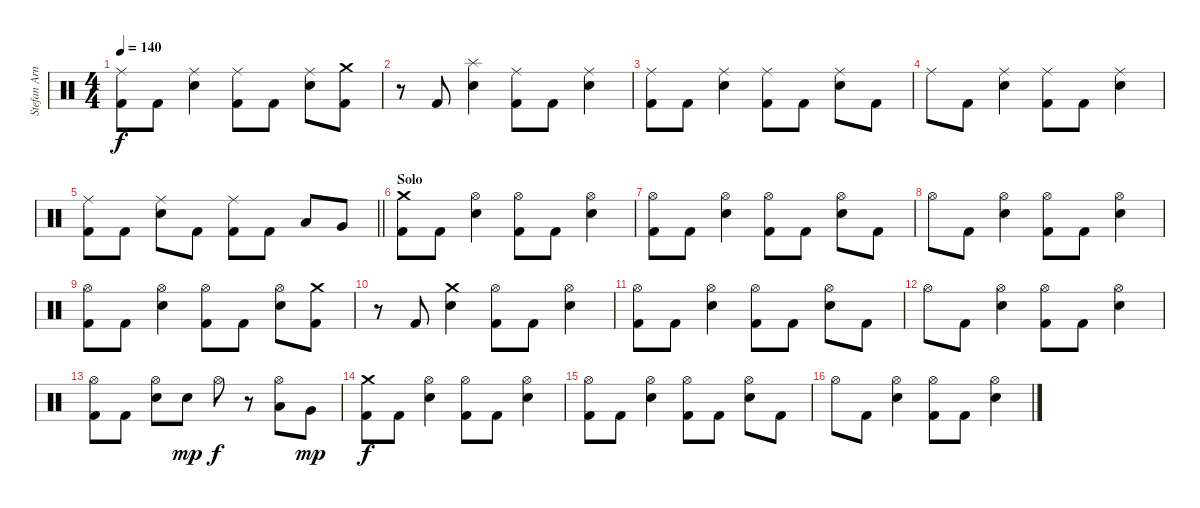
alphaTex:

\track ("Stefan Arnold" "Stefan Arn") {instrument percussion}
\staff {score}
\articulation defaults
\ts (4 4)
\tempo 140
\clef neutral
\ks c
("Ride (middle)" "Kick (hit) 2").8{dy f} "Kick (hit) 2".8 ("Ride (middle)" "Electric Snare (hit)").4 ("Ride (middle)" "Kick (hit) 2").8 "Kick (hit) 2".8 ("Ride (middle)" "Electric Snare (hit)").8 ("Crash medium (hit)" "Kick (hit) 2").8 |
r.8 "Kick (hit) 2".8 ("Splash (hit)" "Electric Snare (hit)").4 ("Ride (middle)" "Kick (hit) 2").8 "Kick (hit) 2".8 ("Ride (middle)" "Electric Snare (hit)").4 |
("Ride (middle)" "Kick (hit) 2").8 "Kick (hit) 2".8 ("Ride (middle)" "Electric Snare (hit)").4 ("Ride (middle)" "Kick (hit) 2").8 "Kick (hit) 2".8 ("Ride (middle)" "Electric Snare (hit)").8 "Kick (hit) 2".8 |
"Ride (middle)".8 "Kick (hit) 2".8 ("Ride (middle)" "Electric Snare (hit)").4 ("Ride (middle)" "Kick (hit) 2").8 "Kick (hit) 2".8 ("Ride (middle)" "Electric Snare (hit)").4 |
\barLineRight lightlight
("Ride (middle)" "Kick (hit) 2").8 "Kick (hit) 2".8 ("Ride (middle)" "Electric Snare (hit)").8 "Kick (hit) 2".8 ("Ride (middle)" "Kick (hit) 2").8 "Kick (hit) 2".8 "Low Tom (hit)".8 "Very Low Tom (hit)".8 |
\section ("" "Solo")
("Crash medium (hit)" "Kick (hit) 2").8 "Kick (hit) 2".8 ("Hi-Hat (open)" "Electric Snare (hit)").4 ("Hi-Hat (open)" "Kick (hit) 2").8 "Kick (hit) 2".8 ("Hi-Hat (open)" "Electric Snare (hit)").4 |
("Hi-Hat (open)" "Kick (hit) 2").8 "Kick (hit) 2".8 ("Hi-Hat (open)" "Electric Snare (hit)").4 ("Hi-Hat (open)" "Kick (hit) 2").8 "Kick (hit) 2".8 ("Hi-Hat (open)" "Electric Snare (hit)").8 "Kick (hit) 2".8 |
"Hi-Hat (open)".8 "Kick (hit) 2".8 ("Hi-Hat (open)" "Electric Snare (hit)").4 ("Hi-Hat (open)" "Kick (hit) 2").8 "Kick (hit) 2".8 ("Hi-Hat (open)" "Electric Snare (hit)").4 |
("Hi-Hat (open)" "Kick (hit) 2").8 "Kick (hit) 2".8 ("Hi-Hat (open)" "Electric Snare (hit)").4 ("Hi-Hat (open)" "Kick (hit) 2").8 "Kick (hit) 2".8 ("Hi-Hat (open)" "Electric Snare (hit)").8 ("Crash medium (hit)" "Kick (hit) 2").8 |
r.8 "Kick (hit) 2".8 ("Crash medium (hit)" "Electric Snare (hit)").4 ("Hi-Hat (open)" "Kick (hit) 2").8 "Kick (hit) 2".8 ("Hi-Hat (open)" "Electric Snare (hit)").4 |
("Hi-Hat (open)" "Kick (hit) 2").8 "Kick (hit) 2".8 ("Hi-Hat (open)" "Electric Snare (hit)").4 ("Hi-Hat (open)" "Kick (hit) 2").8 "Kick (hit) 2".8 ("Hi-Hat (open)" "Electric Snare (hit)").8 "Kick (hit) 2".8 |
"Hi-Hat (open)".8 "Kick (hit) 2".8 ("Hi-Hat (open)" "Electric Snare (hit)").4 ("Hi-Hat (open)" "Kick (hit) 2").8 "Kick (hit) 2".8 ("Hi-Hat (open)" "Electric Snare (hit)").4 |
("Hi-Hat (open)" "Kick (hit) 2").8 "Kick (hit) 2".8 ("Hi-Hat (open)" "Electric Snare (hit)").8 "Electric Snare (hit)".8{dy mp} "Hi-Hat (open)".8{dy f} r.8 ("Hi-Hat (open)" "Low Tom (hit)").8 "Very Low Tom (hit)".8{dy mp} |
("Crash medium (hit)" "Kick (hit) 2").8{dy f} "Kick (hit) 2".8 ("Hi-Hat (open)" "Electric Snare (hit)").4 ("Hi-Hat (open)" "Kick (hit) 2").8 "Kick (hit) 2".8 ("Hi-Hat (open)" "Electric Snare (hit)").4 |
("Hi-Hat (open)" "Kick (hit) 2").8 "Kick (hit) 2".8 ("Hi-Hat (open)" "Electric Snare (hit)").4 ("Hi-Hat (open)" "Kick (hit) 2").8 "Kick (hit) 2".8 ("Hi-Hat (open)" "Electric Snare (hit)").8 "Kick (hit) 2".8 |
"Hi-Hat (open)".8 "Kick (hit) 2".8 ("Hi-Hat (open)" "Electric Snare (hit)").4 ("Hi-Hat (open)" "Kick (hit) 2").8 "Kick (hit) 2".8 ("Hi-Hat (open)" "Electric Snare (hit)").4
